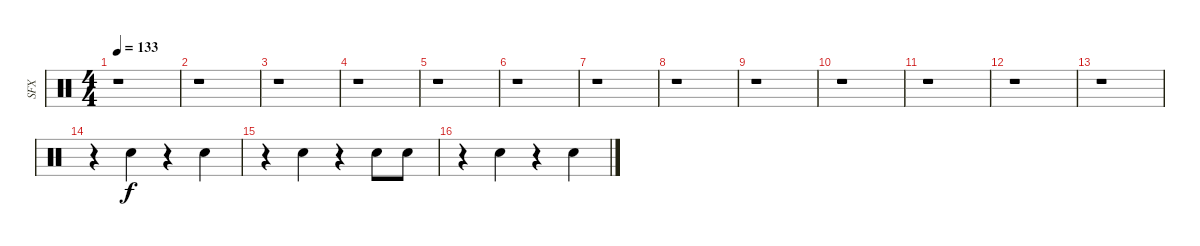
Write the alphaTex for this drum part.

\track ("SFX" "SFX") {instrument percussion}
\staff {score}
\articulation defaults
\ts (4 4)
\tempo 133
\clef neutral
\ks c
r.1{dy f} |
r.1 |
r.1 |
r.1 |
r.1 |
r.1 |
r.1 |
r.1 |
r.1 |
r.1 |
r.1 |
r.1 |
r.1 |
r.4 "Hand Clap (hit)".4 r.4 "Hand Clap (hit)".4 |
r.4 "Hand Clap (hit)".4 r.4 "Hand Clap (hit)".8 "Hand Clap (hit)".8 |
r.4 "Hand Clap (hit)".4 r.4 "Hand Clap (hit)".4
